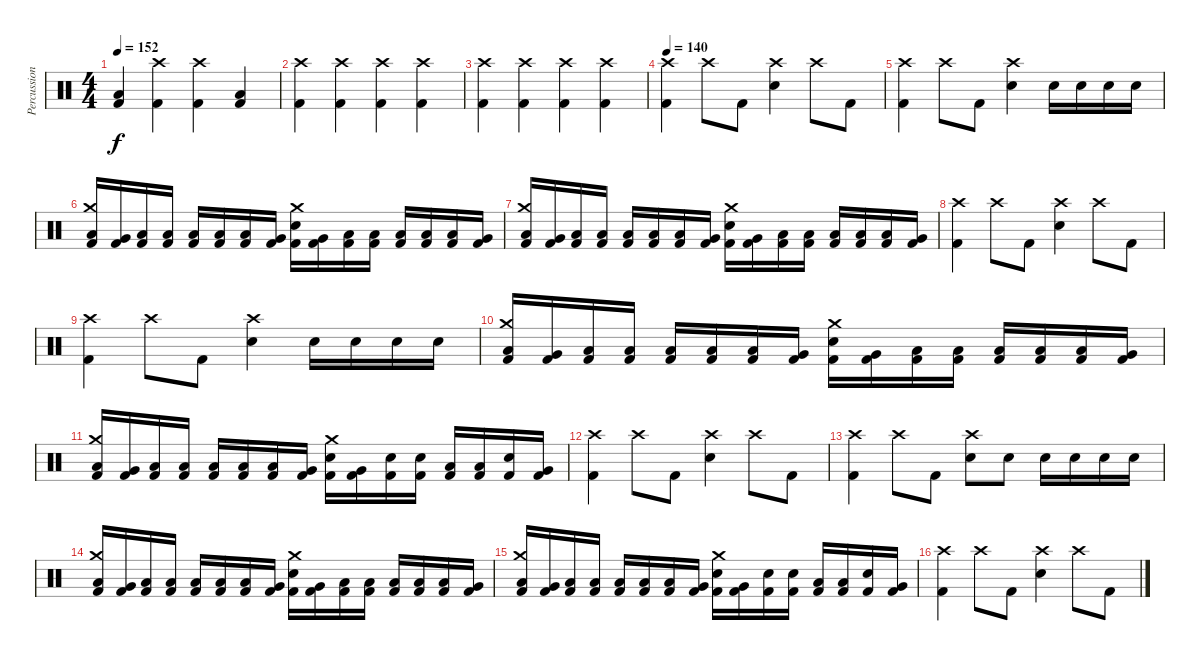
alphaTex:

\track ("Percussion" "Percussion") {instrument percussion}
\staff {score}
\articulation defaults
\ts (4 4)
\tempo 152
\clef neutral
\ks c
("Low Floor Tom (hit)" "Kick (hit) 2").4{dy f} ("Crash high (hit)" "Kick (hit) 2").4 ("Crash high (hit)" "Kick (hit) 2").4 ("Low Floor Tom (hit)" "Kick (hit) 2").4 |
("Crash high (hit)" "Kick (hit) 2").4 ("Crash high (hit)" "Kick (hit) 2").4 ("Crash high (hit)" "Kick (hit) 2").4 ("Crash high (hit)" "Kick (hit) 2").4 |
("Crash high (hit)" "Kick (hit) 2").4 ("Crash high (hit)" "Kick (hit) 2").4 ("Crash high (hit)" "Kick (hit) 2").4 ("Crash high (hit)" "Kick (hit) 2").4 |
\tempo 140
("Crash high (hit)" "Kick (hit) 2").4 "Crash high (hit)".8 "Kick (hit) 2".8 ("Crash high (hit)" "Electric Snare (hit)").4 "Crash high (hit)".8 "Kick (hit) 2".8 |
("Crash high (hit)" "Kick (hit) 2").4 "Crash high (hit)".8 "Kick (hit) 2".8 ("Crash high (hit)" "Electric Snare (hit)").4 "Electric Snare (hit)".16 "Electric Snare (hit)".16 "Electric Snare (hit)".16 "Electric Snare (hit)".16 |
("Crash medium (hit)" "Low Tom (hit)" "Kick (hit) 2").16 ("Very Low Tom (hit)" "Kick (hit) 2").16 ("Low Floor Tom (hit)" "Kick (hit) 2").16 ("Low Floor Tom (hit)" "Kick (hit) 2").16 ("Low Floor Tom (hit)" "Kick (hit) 2").16 ("Low Floor Tom (hit)" "Kick (hit) 2").16 ("Low Tom (hit)" "Kick (hit) 2").16 ("Very Low Tom (hit)" "Kick (hit) 2").16 ("Crash medium (hit)" "Electric Snare (hit)" "Kick (hit) 2").16 ("Very Low Tom (hit)" "Kick (hit) 2").16 ("Low Floor Tom (hit)" "Kick (hit) 2").16 ("Low Floor Tom (hit)" "Kick (hit) 2").16 ("Low Floor Tom (hit)" "Kick (hit) 2").16 ("Low Floor Tom (hit)" "Kick (hit) 2").16 ("Low Tom (hit)" "Kick (hit) 2").16 ("Very Low Tom (hit)" "Kick (hit) 2").16 |
("Crash medium (hit)" "Low Tom (hit)" "Kick (hit) 2").16 ("Very Low Tom (hit)" "Kick (hit) 2").16 ("Low Floor Tom (hit)" "Kick (hit) 2").16 ("Low Floor Tom (hit)" "Kick (hit) 2").16 ("Low Floor Tom (hit)" "Kick (hit) 2").16 ("Low Floor Tom (hit)" "Kick (hit) 2").16 ("Low Tom (hit)" "Kick (hit) 2").16 ("Very Low Tom (hit)" "Kick (hit) 2").16 ("Crash medium (hit)" "Electric Snare (hit)" "Kick (hit) 2").16 ("Very Low Tom (hit)" "Kick (hit) 2").16 ("Low Floor Tom (hit)" "Kick (hit) 2").16 ("Low Floor Tom (hit)" "Kick (hit) 2").16 ("Low Floor Tom (hit)" "Kick (hit) 2").16 ("Low Floor Tom (hit)" "Kick (hit) 2").16 ("Low Tom (hit)" "Kick (hit) 2").16 ("Very Low Tom (hit)" "Kick (hit) 2").16 |
("Crash high (hit)" "Kick (hit) 2").4 "Crash high (hit)".8 "Kick (hit) 2".8 ("Crash high (hit)" "Electric Snare (hit)").4 "Crash high (hit)".8 "Kick (hit) 2".8 |
("Crash high (hit)" "Kick (hit) 2").4 "Crash high (hit)".8 "Kick (hit) 2".8 ("Crash high (hit)" "Electric Snare (hit)").4 "Electric Snare (hit)".16 "Electric Snare (hit)".16 "Electric Snare (hit)".16 "Electric Snare (hit)".16 |
("Crash medium (hit)" "Low Tom (hit)" "Kick (hit) 2").16 ("Very Low Tom (hit)" "Kick (hit) 2").16 ("Low Floor Tom (hit)" "Kick (hit) 2").16 ("Low Floor Tom (hit)" "Kick (hit) 2").16 ("Low Floor Tom (hit)" "Kick (hit) 2").16 ("Low Floor Tom (hit)" "Kick (hit) 2").16 ("Low Tom (hit)" "Kick (hit) 2").16 ("Very Low Tom (hit)" "Kick (hit) 2").16 ("Crash medium (hit)" "Electric Snare (hit)" "Kick (hit) 2").16 ("Very Low Tom (hit)" "Kick (hit) 2").16 ("Low Floor Tom (hit)" "Kick (hit) 2").16 ("Low Floor Tom (hit)" "Kick (hit) 2").16 ("Low Floor Tom (hit)" "Kick (hit) 2").16 ("Low Floor Tom (hit)" "Kick (hit) 2").16 ("Low Tom (hit)" "Kick (hit) 2").16 ("Very Low Tom (hit)" "Kick (hit) 2").16 |
("Crash medium (hit)" "Low Tom (hit)" "Kick (hit) 2").16 ("Very Low Tom (hit)" "Kick (hit) 2").16 ("Low Floor Tom (hit)" "Kick (hit) 2").16 ("Low Floor Tom (hit)" "Kick (hit) 2").16 ("Low Floor Tom (hit)" "Kick (hit) 2").16 ("Low Floor Tom (hit)" "Kick (hit) 2").16 ("Low Tom (hit)" "Kick (hit) 2").16 ("Very Low Tom (hit)" "Kick (hit) 2").16 ("Crash medium (hit)" "Electric Snare (hit)" "Kick (hit) 2").16 ("Very Low Tom (hit)" "Kick (hit) 2").16 ("Electric Snare (hit)" "Kick (hit) 2").16 ("Electric Snare (hit)" "Kick (hit) 2").16 ("Low Floor Tom (hit)" "Kick (hit) 2").16 ("Low Floor Tom (hit)" "Kick (hit) 2").16 ("Electric Snare (hit)" "Kick (hit) 2").16 ("Very Low Tom (hit)" "Kick (hit) 2").16 |
("Crash high (hit)" "Kick (hit) 2").4 "Crash high (hit)".8 "Kick (hit) 2".8 ("Crash high (hit)" "Electric Snare (hit)").4 "Crash high (hit)".8 "Kick (hit) 2".8 |
("Crash high (hit)" "Kick (hit) 2").4 "Crash high (hit)".8 "Kick (hit) 2".8 ("Crash high (hit)" "Electric Snare (hit)").8 "Electric Snare (hit)".8 "Electric Snare (hit)".16 "Electric Snare (hit)".16 "Electric Snare (hit)".16 "Electric Snare (hit)".16 |
("Crash medium (hit)" "Low Tom (hit)" "Kick (hit) 2").16 ("Very Low Tom (hit)" "Kick (hit) 2").16 ("Low Floor Tom (hit)" "Kick (hit) 2").16 ("Low Floor Tom (hit)" "Kick (hit) 2").16 ("Low Floor Tom (hit)" "Kick (hit) 2").16 ("Low Floor Tom (hit)" "Kick (hit) 2").16 ("Low Tom (hit)" "Kick (hit) 2").16 ("Very Low Tom (hit)" "Kick (hit) 2").16 ("Crash medium (hit)" "Electric Snare (hit)" "Kick (hit) 2").16 ("Very Low Tom (hit)" "Kick (hit) 2").16 ("Low Floor Tom (hit)" "Kick (hit) 2").16 ("Low Floor Tom (hit)" "Kick (hit) 2").16 ("Low Floor Tom (hit)" "Kick (hit) 2").16 ("Low Floor Tom (hit)" "Kick (hit) 2").16 ("Low Tom (hit)" "Kick (hit) 2").16 ("Very Low Tom (hit)" "Kick (hit) 2").16 |
("Crash medium (hit)" "Low Tom (hit)" "Kick (hit) 2").16 ("Very Low Tom (hit)" "Kick (hit) 2").16 ("Low Floor Tom (hit)" "Kick (hit) 2").16 ("Low Floor Tom (hit)" "Kick (hit) 2").16 ("Low Floor Tom (hit)" "Kick (hit) 2").16 ("Low Floor Tom (hit)" "Kick (hit) 2").16 ("Low Tom (hit)" "Kick (hit) 2").16 ("Very Low Tom (hit)" "Kick (hit) 2").16 ("Crash medium (hit)" "Electric Snare (hit)" "Kick (hit) 2").16 ("Very Low Tom (hit)" "Kick (hit) 2").16 ("Electric Snare (hit)" "Kick (hit) 2").16 ("Electric Snare (hit)" "Kick (hit) 2").16 ("Low Floor Tom (hit)" "Kick (hit) 2").16 ("Low Floor Tom (hit)" "Kick (hit) 2").16 ("Electric Snare (hit)" "Kick (hit) 2").16 ("Very Low Tom (hit)" "Kick (hit) 2").16 |
("Crash high (hit)" "Kick (hit) 2").4 "Crash high (hit)".8 "Kick (hit) 2".8 ("Crash high (hit)" "Electric Snare (hit)").4 "Crash high (hit)".8 "Kick (hit) 2".8
